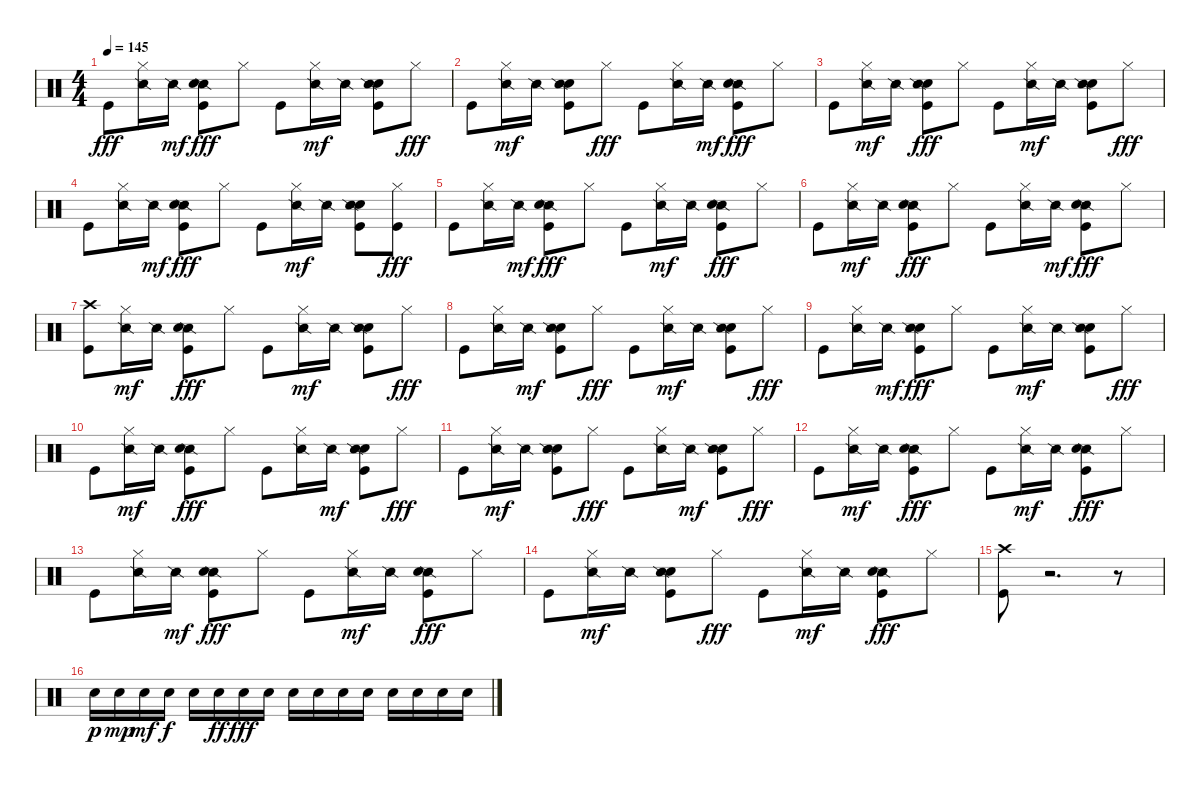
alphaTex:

\track "" {instrument percussion}
\staff {score}
\articulation defaults
\ts (4 4)
\tempo 145
\clef neutral
\ks c "Kick (hit)".8{dy fff}
("Snare (side stick) 2" "Hi-Hat (closed)").16 "Snare (side stick) 2".16{dy mf} ("Snare (side stick) 2" "Hand Clap (hit)" "Kick (hit)").8{dy fff} "Hi-Hat (closed)".8 "Kick (hit)".8 ("Hi-Hat (closed)" "Snare (side stick) 2").16{dy mf} "Snare (side stick) 2".16 ("Hand Clap (hit)" "Kick (hit)" "Snare (side stick) 2").8 "Hi-Hat (closed)".8{dy fff} |
"Kick (hit)".8 ("Hi-Hat (closed)" "Snare (side stick) 2").16{dy mf} "Snare (side stick) 2".16 ("Kick (hit)" "Hand Clap (hit)" "Snare (side stick) 2").8 "Hi-Hat (closed)".8{dy fff} "Kick (hit)".8 ("Snare (side stick) 2" "Hi-Hat (closed)").16 "Snare (side stick) 2".16{dy mf} ("Kick (hit)" "Snare (side stick) 2" "Hand Clap (hit)").8{dy fff} "Hi-Hat (closed)".8 |
"Kick (hit)".8 ("Hi-Hat (closed)" "Snare (side stick) 2").16{dy mf} "Snare (side stick) 2".16 ("Hand Clap (hit)" "Snare (side stick) 2" "Kick (hit)").8{dy fff} "Hi-Hat (closed)".8 "Kick (hit)".8 ("Hi-Hat (closed)" "Snare (side stick) 2").16{dy mf} "Snare (side stick) 2".16 ("Hand Clap (hit)" "Kick (hit)" "Snare (side stick) 2").8 "Hi-Hat (closed)".8{dy fff} |
"Kick (hit)".8 ("Snare (side stick) 2" "Hi-Hat (closed)").16 "Snare (side stick) 2".16{dy mf} ("Snare (side stick) 2" "Kick (hit)" "Hand Clap (hit)").8{dy fff} "Hi-Hat (closed)".8 "Kick (hit)".8 ("Hi-Hat (closed)" "Snare (side stick) 2").16{dy mf} "Snare (side stick) 2".16 ("Hand Clap (hit)" "Kick (hit)" "Snare (side stick) 2").8 ("Hi-Hat (closed)" "Kick (hit)").8{dy fff} |
"Kick (hit)".8 ("Snare (side stick) 2" "Hi-Hat (closed)").16 "Snare (side stick) 2".16{dy mf} ("Snare (side stick) 2" "Kick (hit)" "Hand Clap (hit)").8{dy fff} "Hi-Hat (closed)".8 "Kick (hit)".8 ("Hi-Hat (closed)" "Snare (side stick) 2").16{dy mf} "Snare (side stick) 2".16 ("Snare (side stick) 2" "Hand Clap (hit)" "Kick (hit)").8{dy fff} "Hi-Hat (closed)".8 |
"Kick (hit)".8 ("Hi-Hat (closed)" "Snare (side stick) 2").16{dy mf} "Snare (side stick) 2".16 ("Snare (side stick) 2" "Hand Clap (hit)" "Kick (hit)").8{dy fff} "Hi-Hat (closed)".8 "Kick (hit)".8 ("Snare (side stick) 2" "Hi-Hat (closed)").16 "Snare (side stick) 2".16{dy mf} ("Kick (hit)" "Snare (side stick) 2" "Hand Clap (hit)").8{dy fff} "Hi-Hat (closed)".8 |
("Crash high (hit)" "Kick (hit)").8 ("Hi-Hat (closed)" "Snare (side stick) 2").16{dy mf} "Snare (side stick) 2".16 ("Snare (side stick) 2" "Hand Clap (hit)" "Kick (hit)").8{dy fff} "Hi-Hat (closed)".8 "Kick (hit)".8 ("Hi-Hat (closed)" "Snare (side stick) 2").16{dy mf} "Snare (side stick) 2".16 ("Kick (hit)" "Hand Clap (hit)" "Snare (side stick) 2").8 "Hi-Hat (closed)".8{dy fff} |
"Kick (hit)".8 ("Snare (side stick) 2" "Hi-Hat (closed)").16 "Snare (side stick) 2".16{dy mf} ("Kick (hit)" "Hand Clap (hit)" "Snare (side stick) 2").8 "Hi-Hat (closed)".8{dy fff} "Kick (hit)".8 ("Hi-Hat (closed)" "Snare (side stick) 2").16{dy mf} "Snare (side stick) 2".16 ("Hand Clap (hit)" "Kick (hit)" "Snare (side stick) 2").8 "Hi-Hat (closed)".8{dy fff} |
"Kick (hit)".8 ("Snare (side stick) 2" "Hi-Hat (closed)").16 "Snare (side stick) 2".16{dy mf} ("Hand Clap (hit)" "Snare (side stick) 2" "Kick (hit)").8{dy fff} "Hi-Hat (closed)".8 "Kick (hit)".8 ("Hi-Hat (closed)" "Snare (side stick) 2").16{dy mf} "Snare (side stick) 2".16 ("Hand Clap (hit)" "Kick (hit)" "Snare (side stick) 2").8 "Hi-Hat (closed)".8{dy fff} |
"Kick (hit)".8 ("Hi-Hat (closed)" "Snare (side stick) 2").16{dy mf} "Snare (side stick) 2".16 ("Snare (side stick) 2" "Hand Clap (hit)" "Kick (hit)").8{dy fff} "Hi-Hat (closed)".8 "Kick (hit)".8 ("Snare (side stick) 2" "Hi-Hat (closed)").16 "Snare (side stick) 2".16{dy mf} ("Hand Clap (hit)" "Kick (hit)" "Snare (side stick) 2").8 "Hi-Hat (closed)".8{dy fff} |
"Kick (hit)".8 ("Hi-Hat (closed)" "Snare (side stick) 2").16{dy mf} "Snare (side stick) 2".16 ("Hand Clap (hit)" "Kick (hit)" "Snare (side stick) 2").8 "Hi-Hat (closed)".8{dy fff} "Kick (hit)".8 ("Snare (side stick) 2" "Hi-Hat (closed)").16 "Snare (side stick) 2".16{dy mf} ("Kick (hit)" "Hand Clap (hit)" "Snare (side stick) 2").8 "Hi-Hat (closed)".8{dy fff} |
"Kick (hit)".8 ("Hi-Hat (closed)" "Snare (side stick) 2").16{dy mf} "Snare (side stick) 2".16 ("Kick (hit)" "Snare (side stick) 2" "Hand Clap (hit)").8{dy fff} "Hi-Hat (closed)".8 "Kick (hit)".8 ("Hi-Hat (closed)" "Snare (side stick) 2").16{dy mf} "Snare (side stick) 2".16 ("Snare (side stick) 2" "Kick (hit)" "Hand Clap (hit)").8{dy fff} "Hi-Hat (closed)".8 |
"Kick (hit)".8 ("Snare (side stick) 2" "Hi-Hat (closed)").16 "Snare (side stick) 2".16{dy mf} ("Snare (side stick) 2" "Kick (hit)" "Hand Clap (hit)").8{dy fff} "Hi-Hat (closed)".8 "Kick (hit)".8 ("Hi-Hat (closed)" "Snare (side stick) 2").16{dy mf} "Snare (side stick) 2".16 ("Kick (hit)" "Snare (side stick) 2" "Hand Clap (hit)").8{dy fff} "Hi-Hat (closed)".8 |
"Kick (hit)".8 ("Hi-Hat (closed)" "Snare (side stick) 2").16{dy mf} "Snare (side stick) 2".16 ("Kick (hit)" "Hand Clap (hit)" "Snare (side stick) 2").8 "Hi-Hat (closed)".8{dy fff} "Kick (hit)".8 ("Hi-Hat (closed)" "Snare (side stick) 2").16{dy mf} "Snare (side stick) 2".16 ("Snare (side stick) 2" "Kick (hit)" "Hand Clap (hit)").8{dy fff} "Hi-Hat (closed)".8 |
("Crash high (hit)" "Kick (hit)").8 r.2{d} r.8 |
"Snare (hit) 2".16{dy p} "Snare (hit) 2".16{dy mp} "Snare (hit) 2".16{dy mf} "Snare (hit) 2".16{dy f} "Snare (hit) 2".16 "Snare (hit) 2".16{dy ff} "Snare (hit) 2".16{dy fff} "Snare (hit) 2".16 "Snare (hit) 2".16 "Snare (hit) 2".16 "Snare (hit) 2".16 "Snare (hit) 2".16 "Snare (hit) 2".16 "Snare (hit) 2".16 "Snare (hit) 2".16 "Snare (hit) 2".16
